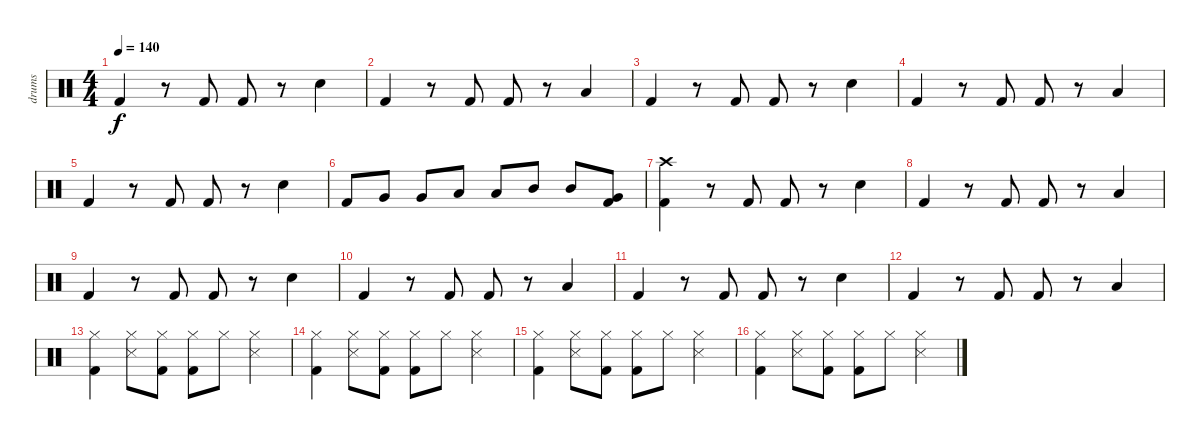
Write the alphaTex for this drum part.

\track ("drums" "drums") {instrument percussion}
\staff {score}
\articulation defaults
\ts (4 4)
\tempo 140
\clef neutral
\ks c "Kick (hit) 2".4{dy f}
r.8 "Kick (hit) 2".8 "Kick (hit) 2".8 r.8 "Snare (hit) 2".4 |
"Kick (hit) 2".4 r.8 "Kick (hit) 2".8 "Kick (hit) 2".8 r.8 "Low Tom (hit)".4 |
"Kick (hit) 2".4 r.8 "Kick (hit) 2".8 "Kick (hit) 2".8 r.8 "Snare (hit) 2".4 |
"Kick (hit) 2".4 r.8 "Kick (hit) 2".8 "Kick (hit) 2".8 r.8 "Low Tom (hit)".4 |
"Kick (hit) 2".4 r.8 "Kick (hit) 2".8 "Kick (hit) 2".8 r.8 "Snare (hit) 2".4 |
"Kick (hit) 2".8 "Very Low Tom (hit)".8 "Very Low Tom (hit)".8 "Low Tom (hit)".8 "Low Tom (hit)".8 "Mid Tom (hit)".8 "Mid Tom (hit)".8 ("Very Low Tom (hit)" "Kick (hit) 2").8 |
("Crash high (hit)" "Kick (hit) 2").4 r.8 "Kick (hit) 2".8 "Kick (hit) 2".8 r.8 "Snare (hit) 2".4 |
"Kick (hit) 2".4 r.8 "Kick (hit) 2".8 "Kick (hit) 2".8 r.8 "Low Tom (hit)".4 |
"Kick (hit) 2".4 r.8 "Kick (hit) 2".8 "Kick (hit) 2".8 r.8 "Snare (hit) 2".4 |
"Kick (hit) 2".4 r.8 "Kick (hit) 2".8 "Kick (hit) 2".8 r.8 "Low Tom (hit)".4 |
"Kick (hit) 2".4 r.8 "Kick (hit) 2".8 "Kick (hit) 2".8 r.8 "Snare (hit) 2".4 |
"Kick (hit) 2".4 r.8 "Kick (hit) 2".8 "Kick (hit) 2".8 r.8 "Low Tom (hit)".4 |
("Hi-Hat (closed)" "Kick (hit) 2").4 ("Hi-Hat (closed)" "Snare (side stick) 3").8 ("Hi-Hat (closed)" "Kick (hit) 2").8 ("Hi-Hat (closed)" "Kick (hit) 2").8 "Hi-Hat (closed)".8 ("Hi-Hat (closed)" "Snare (side stick) 3").4 |
("Hi-Hat (closed)" "Kick (hit) 2").4 ("Hi-Hat (closed)" "Snare (side stick) 3").8 ("Hi-Hat (closed)" "Kick (hit) 2").8 ("Hi-Hat (closed)" "Kick (hit) 2").8 "Hi-Hat (closed)".8 ("Hi-Hat (closed)" "Snare (side stick) 3").4 |
("Hi-Hat (closed)" "Kick (hit) 2").4 ("Hi-Hat (closed)" "Snare (side stick) 3").8 ("Hi-Hat (closed)" "Kick (hit) 2").8 ("Hi-Hat (closed)" "Kick (hit) 2").8 "Hi-Hat (closed)".8 ("Hi-Hat (closed)" "Snare (side stick) 3").4 |
("Hi-Hat (closed)" "Kick (hit) 2").4 ("Hi-Hat (closed)" "Snare (side stick) 3").8 ("Hi-Hat (closed)" "Kick (hit) 2").8 ("Hi-Hat (closed)" "Kick (hit) 2").8 "Hi-Hat (closed)".8 ("Hi-Hat (closed)" "Snare (side stick) 3").4
